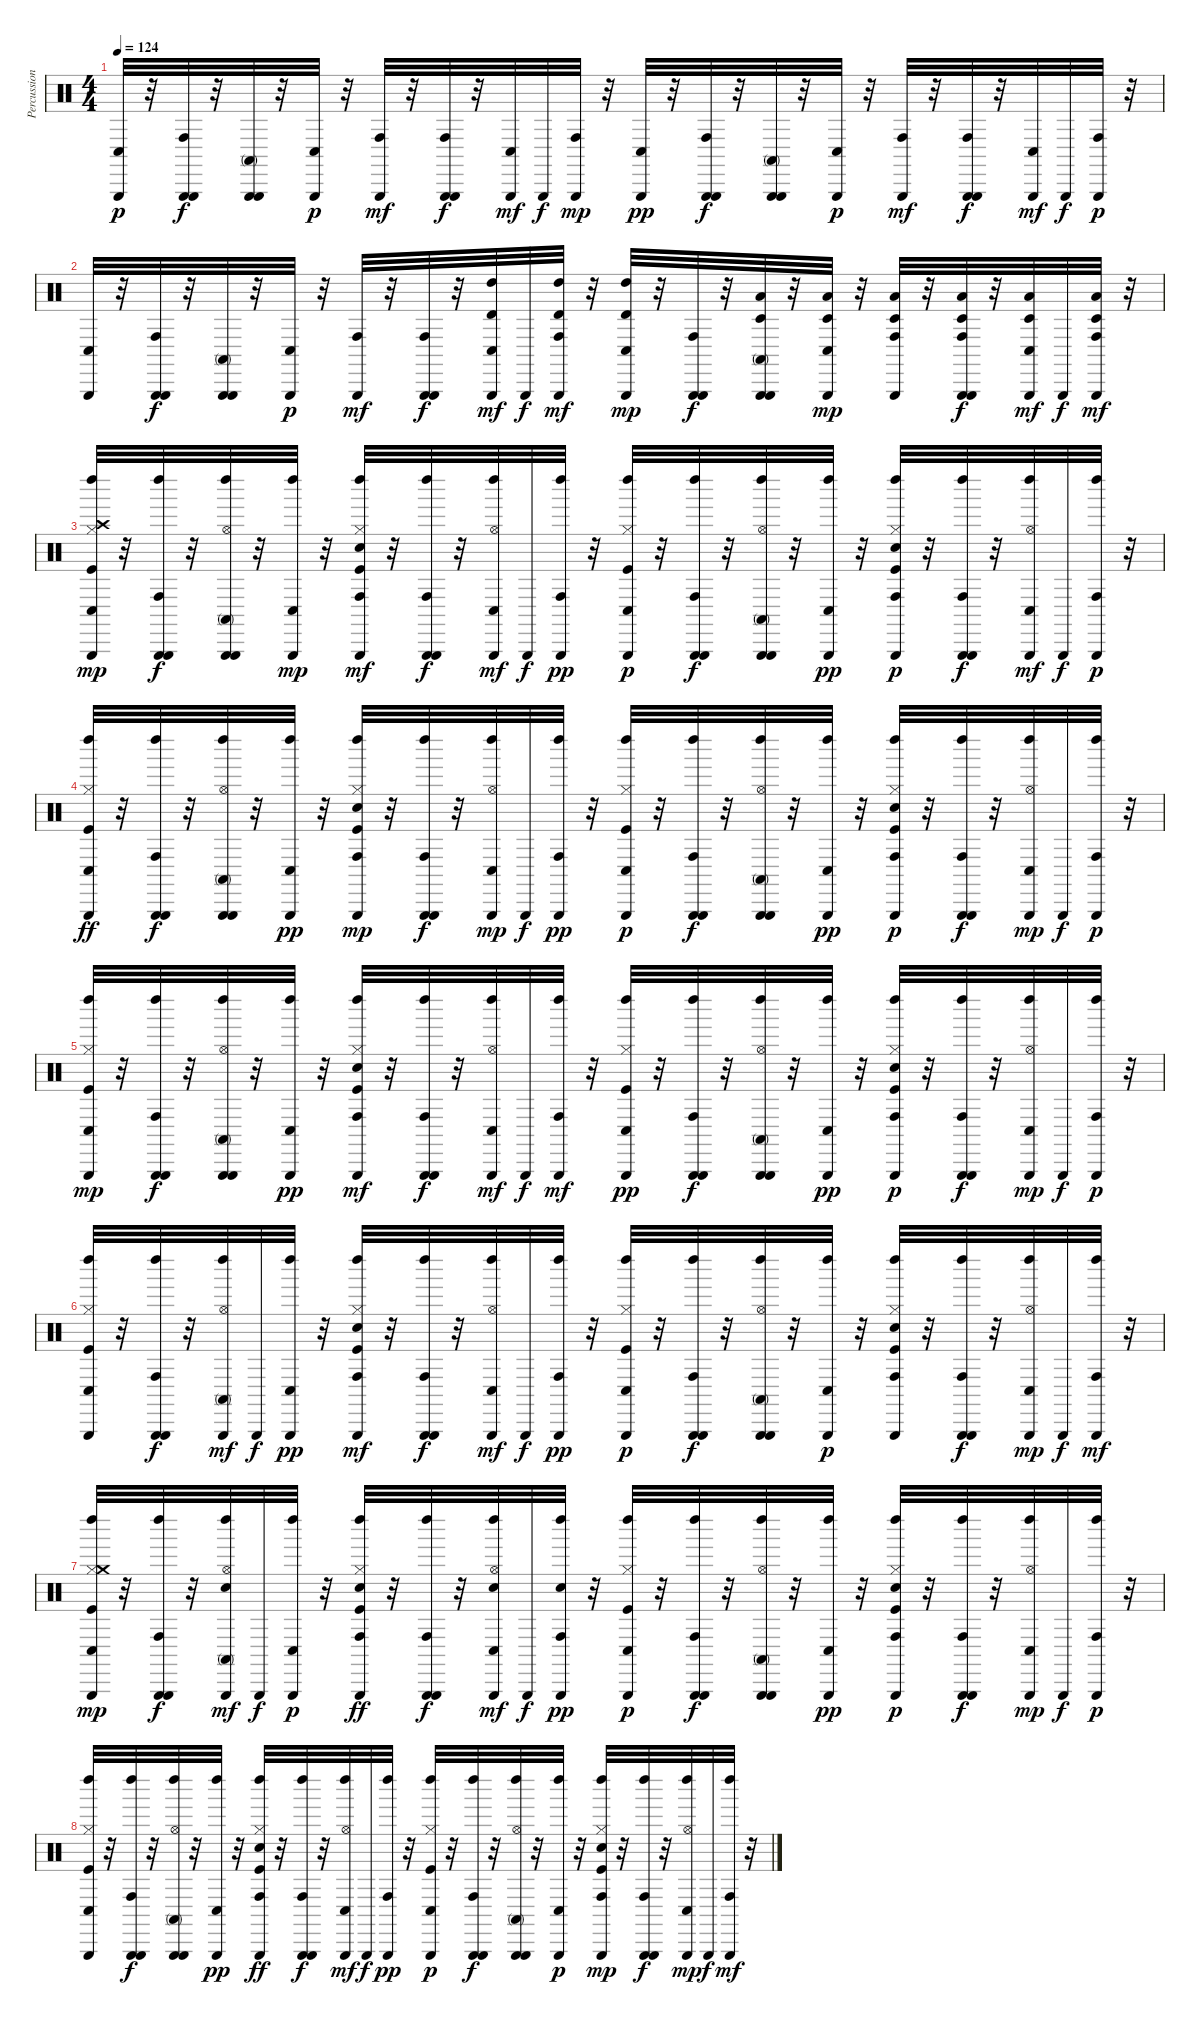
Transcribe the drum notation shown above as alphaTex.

\track ("Percussion" "Percussion") {instrument percussion}
\staff {score}
\articulation defaults
\ts (4 4)
\tempo 124
\clef neutral
\ks c
("Triangle (hit)" "Conga low (hit)").32{dy p} r.32 ("Conga high (hit)" "Triangle (hit)" "Triangle (hit)").32{dy f} r.32 ("Triangle (hit)" "Conga high (mute)" "Triangle (hit)").32 r.32 ("Triangle (hit)" "Conga low (hit)").32{dy p} r.32 ("Triangle (hit)" "Conga high (hit)").32{dy mf} r.32 ("Triangle (hit)" "Conga high (hit)" "Triangle (hit)").32{dy f} r.32 ("Triangle (hit)" "Conga low (hit)").32{dy mf} "Triangle (hit)".32{dy f} ("Conga high (hit)" "Triangle (hit)").32{dy mp} r.32 ("Triangle (hit)" "Conga low (hit)").32{dy pp} r.32 ("Triangle (hit)" "Conga high (hit)" "Triangle (hit)").32{dy f} r.32 ("Conga high (mute)" "Triangle (hit)" "Triangle (hit)").32 r.32 ("Triangle (hit)" "Conga low (hit)").32{dy p} r.32 ("Triangle (hit)" "Conga high (hit)").32{dy mf} r.32 ("Triangle (hit)" "Conga high (hit)" "Triangle (hit)").32{dy f} r.32 ("Triangle (hit)" "Conga low (hit)").32{dy mf} "Triangle (hit)".32{dy f} ("Conga high (hit)" "Triangle (hit)").32{dy p} r.32 |
("Triangle (hit)" "Conga low (hit)").32 r.32 ("Triangle (hit)" "Conga high (hit)" "Triangle (hit)").32{dy f} r.32 ("Triangle (hit)" "Conga high (mute)" "Triangle (hit)").32 r.32 ("Triangle (hit)" "Conga low (hit)").32{dy p} r.32 ("Triangle (hit)" "Conga high (hit)").32{dy mf} r.32 ("Triangle (hit)" "Conga high (hit)" "Triangle (hit)").32{dy f} r.32 ("Timbale high (hit)" "Triangle (hit)" "High Tom (hit)" "Conga low (hit)").32{dy mf} "Triangle (hit)".32{dy f} ("Triangle (hit)" "High Tom (hit)" "Timbale high (hit)" "Conga high (hit)").32{dy mf} r.32 ("High Tom (hit)" "Conga low (hit)" "Triangle (hit)" "Timbale high (hit)").32{dy mp} r.32 ("Triangle (hit)" "Conga high (hit)" "Triangle (hit)").32{dy f} r.32 ("Triangle (hit)" "Low Tom (hit)" "Conga high (mute)" "Timbale low (hit)" "Triangle (hit)").32 r.32 ("Conga low (hit)" "Triangle (hit)" "Timbale low (hit)" "Low Tom (hit)").32{dy mp} r.32 ("Low Tom (hit)" "Triangle (hit)" "Timbale low (hit)" "Conga high (hit)").32 r.32 ("Triangle (hit)" "Conga high (hit)" "Low Tom (hit)" "Timbale low (hit)" "Triangle (hit)").32{dy f} r.32 ("Triangle (hit)" "Low Tom (hit)" "Conga low (hit)" "Timbale low (hit)").32{dy mf} "Triangle (hit)".32{dy f} ("Triangle (hit)" "Conga high (hit)" "Low Tom (hit)" "Timbale low (hit)").32{dy mf} r.32 |
("Triangle (hit)" "Conga low (hit)" "Kick (hit)" "Hi-Hat (closed)" "Crash high (hit)" "Left Maraca (hit)").32{dy mp} r.32 ("Triangle (hit)" "Conga high (hit)" "Left Maraca (hit)" "Triangle (hit)").32{dy f} r.32 ("Triangle (hit)" "Left Maraca (hit)" "Hi-Hat (open)" "Conga high (mute)" "Triangle (hit)").32 r.32 ("Conga low (hit)" "Left Maraca (hit)" "Triangle (hit)").32{dy mp} r.32 ("Triangle (hit)" "Left Maraca (hit)" "Kick (hit)" "Snare (hit) 2" "Hi-Hat (closed)" "Conga high (hit)").32{dy mf} r.32 ("Triangle (hit)" "Left Maraca (hit)" "Conga high (hit)" "Triangle (hit)").32{dy f} r.32 ("Hi-Hat (open)" "Triangle (hit)" "Conga low (hit)" "Left Maraca (hit)").32{dy mf} "Triangle (hit)".32{dy f} ("Triangle (hit)" "Conga high (hit)" "Left Maraca (hit)").32{dy pp} r.32 ("Triangle (hit)" "Kick (hit)" "Conga low (hit)" "Hi-Hat (closed)" "Left Maraca (hit)").32{dy p} r.32 ("Conga high (hit)" "Triangle (hit)" "Left Maraca (hit)" "Triangle (hit)").32{dy f} r.32 ("Triangle (hit)" "Conga high (mute)" "Left Maraca (hit)" "Hi-Hat (open)" "Triangle (hit)").32 r.32 ("Triangle (hit)" "Conga low (hit)" "Left Maraca (hit)").32{dy pp} r.32 ("Triangle (hit)" "Kick (hit)" "Snare (hit) 2" "Hi-Hat (closed)" "Conga high (hit)" "Left Maraca (hit)").32{dy p} r.32 ("Triangle (hit)" "Conga high (hit)" "Left Maraca (hit)" "Triangle (hit)").32{dy f} r.32 ("Triangle (hit)" "Hi-Hat (open)" "Left Maraca (hit)" "Conga low (hit)").32{dy mf} "Triangle (hit)".32{dy f} ("Triangle (hit)" "Conga high (hit)" "Left Maraca (hit)").32{dy p} r.32 |
("Hi-Hat (closed)" "Conga low (hit)" "Left Maraca (hit)" "Triangle (hit)" "Kick (hit)").32{dy ff} r.32 ("Triangle (hit)" "Left Maraca (hit)" "Conga high (hit)" "Triangle (hit)").32{dy f} r.32 ("Triangle (hit)" "Hi-Hat (open)" "Conga high (mute)" "Left Maraca (hit)" "Triangle (hit)").32 r.32 ("Triangle (hit)" "Conga low (hit)" "Left Maraca (hit)").32{dy pp} r.32 ("Hi-Hat (closed)" "Conga high (hit)" "Triangle (hit)" "Kick (hit)" "Snare (hit) 2" "Left Maraca (hit)").32{dy mp} r.32 ("Left Maraca (hit)" "Triangle (hit)" "Conga high (hit)" "Triangle (hit)").32{dy f} r.32 ("Triangle (hit)" "Conga low (hit)" "Left Maraca (hit)" "Hi-Hat (open)").32{dy mp} "Triangle (hit)".32{dy f} ("Triangle (hit)" "Conga high (hit)" "Left Maraca (hit)").32{dy pp} r.32 ("Triangle (hit)" "Conga low (hit)" "Kick (hit)" "Hi-Hat (closed)" "Left Maraca (hit)").32{dy p} r.32 ("Triangle (hit)" "Left Maraca (hit)" "Conga high (hit)" "Triangle (hit)").32{dy f} r.32 ("Triangle (hit)" "Left Maraca (hit)" "Hi-Hat (open)" "Conga high (mute)" "Triangle (hit)").32 r.32 ("Triangle (hit)" "Conga low (hit)" "Left Maraca (hit)").32{dy pp} r.32 ("Triangle (hit)" "Kick (hit)" "Snare (hit) 2" "Hi-Hat (closed)" "Conga high (hit)" "Left Maraca (hit)").32{dy p} r.32 ("Triangle (hit)" "Conga high (hit)" "Left Maraca (hit)" "Triangle (hit)").32{dy f} r.32 ("Hi-Hat (open)" "Conga low (hit)" "Triangle (hit)" "Left Maraca (hit)").32{dy mp} "Triangle (hit)".32{dy f} ("Triangle (hit)" "Conga high (hit)" "Left Maraca (hit)").32{dy p} r.32 |
("Triangle (hit)" "Kick (hit)" "Hi-Hat (closed)" "Conga low (hit)" "Left Maraca (hit)").32{dy mp} r.32 ("Triangle (hit)" "Conga high (hit)" "Left Maraca (hit)" "Triangle (hit)").32{dy f} r.32 ("Triangle (hit)" "Conga high (mute)" "Left Maraca (hit)" "Hi-Hat (open)" "Triangle (hit)").32 r.32 ("Triangle (hit)" "Conga low (hit)" "Left Maraca (hit)").32{dy pp} r.32 ("Triangle (hit)" "Kick (hit)" "Snare (hit) 2" "Hi-Hat (closed)" "Left Maraca (hit)" "Conga high (hit)").32{dy mf} r.32 ("Triangle (hit)" "Conga high (hit)" "Left Maraca (hit)" "Triangle (hit)").32{dy f} r.32 ("Hi-Hat (open)" "Triangle (hit)" "Conga low (hit)" "Left Maraca (hit)").32{dy mf} "Triangle (hit)".32{dy f} ("Triangle (hit)" "Left Maraca (hit)" "Conga high (hit)").32{dy mf} r.32 ("Hi-Hat (closed)" "Left Maraca (hit)" "Triangle (hit)" "Kick (hit)" "Conga low (hit)").32{dy pp} r.32 ("Conga high (hit)" "Triangle (hit)" "Left Maraca (hit)" "Triangle (hit)").32{dy f} r.32 ("Triangle (hit)" "Hi-Hat (open)" "Conga high (mute)" "Left Maraca (hit)" "Triangle (hit)").32 r.32 ("Conga low (hit)" "Triangle (hit)" "Left Maraca (hit)").32{dy pp} r.32 ("Triangle (hit)" "Kick (hit)" "Snare (hit) 2" "Hi-Hat (closed)" "Conga high (hit)" "Left Maraca (hit)").32{dy p} r.32 ("Triangle (hit)" "Conga high (hit)" "Left Maraca (hit)" "Triangle (hit)").32{dy f} r.32 ("Triangle (hit)" "Hi-Hat (open)" "Conga low (hit)" "Left Maraca (hit)").32{dy mp} "Triangle (hit)".32{dy f} ("Triangle (hit)" "Conga high (hit)" "Left Maraca (hit)").32{dy p} r.32 |
("Triangle (hit)" "Kick (hit)" "Hi-Hat (closed)" "Left Maraca (hit)" "Conga low (hit)").32 r.32 ("Triangle (hit)" "Left Maraca (hit)" "Conga high (hit)" "Triangle (hit)").32{dy f} r.32 ("Hi-Hat (open)" "Conga high (mute)" "Triangle (hit)" "Left Maraca (hit)").32{dy mf} "Triangle (hit)".32{dy f} ("Triangle (hit)" "Conga low (hit)" "Left Maraca (hit)").32{dy pp} r.32 ("Conga high (hit)" "Triangle (hit)" "Kick (hit)" "Snare (hit) 2" "Left Maraca (hit)" "Hi-Hat (closed)").32{dy mf} r.32 ("Triangle (hit)" "Conga high (hit)" "Left Maraca (hit)" "Triangle (hit)").32{dy f} r.32 ("Triangle (hit)" "Hi-Hat (open)" "Left Maraca (hit)" "Conga low (hit)").32{dy mf} "Triangle (hit)".32{dy f} ("Conga high (hit)" "Triangle (hit)" "Left Maraca (hit)").32{dy pp} r.32 ("Triangle (hit)" "Kick (hit)" "Hi-Hat (closed)" "Left Maraca (hit)" "Conga low (hit)").32{dy p} r.32 ("Triangle (hit)" "Left Maraca (hit)" "Conga high (hit)" "Triangle (hit)").32{dy f} r.32 ("Triangle (hit)" "Hi-Hat (open)" "Conga high (mute)" "Left Maraca (hit)" "Triangle (hit)").32 r.32 ("Triangle (hit)" "Left Maraca (hit)" "Conga low (hit)").32{dy p} r.32 ("Triangle (hit)" "Hi-Hat (closed)" "Conga high (hit)" "Kick (hit)" "Snare (hit) 2" "Left Maraca (hit)").32 r.32 ("Triangle (hit)" "Left Maraca (hit)" "Conga high (hit)" "Triangle (hit)").32{dy f} r.32 ("Triangle (hit)" "Hi-Hat (open)" "Conga low (hit)" "Left Maraca (hit)").32{dy mp} "Triangle (hit)".32{dy f} ("Left Maraca (hit)" "Triangle (hit)" "Conga high (hit)").32{dy mf} r.32 |
("Triangle (hit)" "Hi-Hat (closed)" "Conga low (hit)" "Kick (hit)" "Crash medium (hit)" "Left Maraca (hit)").32{dy mp} r.32 ("Triangle (hit)" "Left Maraca (hit)" "Conga high (hit)" "Triangle (hit)").32{dy f} r.32 ("Triangle (hit)" "Snare (hit) 2" "Hi-Hat (open)" "Left Maraca (hit)" "Conga high (mute)").32{dy mf} "Triangle (hit)".32{dy f} ("Triangle (hit)" "Left Maraca (hit)" "Conga low (hit)").32{dy p} r.32 ("Hi-Hat (closed)" "Conga high (hit)" "Left Maraca (hit)" "Triangle (hit)" "Kick (hit)" "Snare (hit) 2").32{dy ff} r.32 ("Triangle (hit)" "Left Maraca (hit)" "Conga high (hit)" "Triangle (hit)").32{dy f} r.32 ("Hi-Hat (open)" "Left Maraca (hit)" "Triangle (hit)" "Snare (hit) 2" "Conga low (hit)").32{dy mf} "Triangle (hit)".32{dy f} ("Triangle (hit)" "Snare (hit) 2" "Conga high (hit)" "Left Maraca (hit)").32{dy pp} r.32 ("Triangle (hit)" "Conga low (hit)" "Kick (hit)" "Hi-Hat (closed)" "Left Maraca (hit)").32{dy p} r.32 ("Triangle (hit)" "Conga high (hit)" "Left Maraca (hit)" "Triangle (hit)").32{dy f} r.32 ("Triangle (hit)" "Left Maraca (hit)" "Hi-Hat (open)" "Conga high (mute)" "Triangle (hit)").32 r.32 ("Triangle (hit)" "Conga low (hit)" "Left Maraca (hit)").32{dy pp} r.32 ("Hi-Hat (closed)" "Triangle (hit)" "Kick (hit)" "Snare (hit) 2" "Conga high (hit)" "Left Maraca (hit)").32{dy p} r.32 ("Triangle (hit)" "Left Maraca (hit)" "Conga high (hit)" "Triangle (hit)").32{dy f} r.32 ("Hi-Hat (open)" "Conga low (hit)" "Triangle (hit)" "Left Maraca (hit)").32{dy mp} "Triangle (hit)".32{dy f} ("Triangle (hit)" "Conga high (hit)" "Left Maraca (hit)").32{dy p} r.32 |
("Hi-Hat (closed)" "Left Maraca (hit)" "Triangle (hit)" "Kick (hit)" "Conga low (hit)").32 r.32 ("Triangle (hit)" "Conga high (hit)" "Left Maraca (hit)" "Triangle (hit)").32{dy f} r.32 ("Triangle (hit)" "Hi-Hat (open)" "Left Maraca (hit)" "Conga high (mute)" "Triangle (hit)").32 r.32 ("Triangle (hit)" "Conga low (hit)" "Left Maraca (hit)").32{dy pp} r.32 ("Triangle (hit)" "Hi-Hat (closed)" "Conga high (hit)" "Left Maraca (hit)" "Kick (hit)" "Snare (hit) 2").32{dy ff} r.32 ("Triangle (hit)" "Conga high (hit)" "Left Maraca (hit)" "Triangle (hit)").32{dy f} r.32 ("Triangle (hit)" "Hi-Hat (open)" "Conga low (hit)" "Left Maraca (hit)").32{dy mf} "Triangle (hit)".32{dy f} ("Triangle (hit)" "Conga high (hit)" "Left Maraca (hit)").32{dy pp} r.32 ("Triangle (hit)" "Left Maraca (hit)" "Kick (hit)" "Hi-Hat (closed)" "Conga low (hit)").32{dy p} r.32 ("Conga high (hit)" "Triangle (hit)" "Left Maraca (hit)" "Triangle (hit)").32{dy f} r.32 ("Left Maraca (hit)" "Triangle (hit)" "Hi-Hat (open)" "Conga high (mute)" "Triangle (hit)").32 r.32 ("Conga low (hit)" "Left Maraca (hit)" "Triangle (hit)").32{dy p} r.32 ("Triangle (hit)" "Kick (hit)" "Snare (hit) 2" "Conga high (hit)" "Left Maraca (hit)" "Hi-Hat (closed)").32{dy mp} r.32 ("Left Maraca (hit)" "Triangle (hit)" "Conga high (hit)" "Triangle (hit)").32{dy f} r.32 ("Hi-Hat (open)" "Triangle (hit)" "Left Maraca (hit)" "Conga low (hit)").32{dy mp} "Triangle (hit)".32{dy f} ("Left Maraca (hit)" "Triangle (hit)" "Conga high (hit)").32{dy mf} r.32
